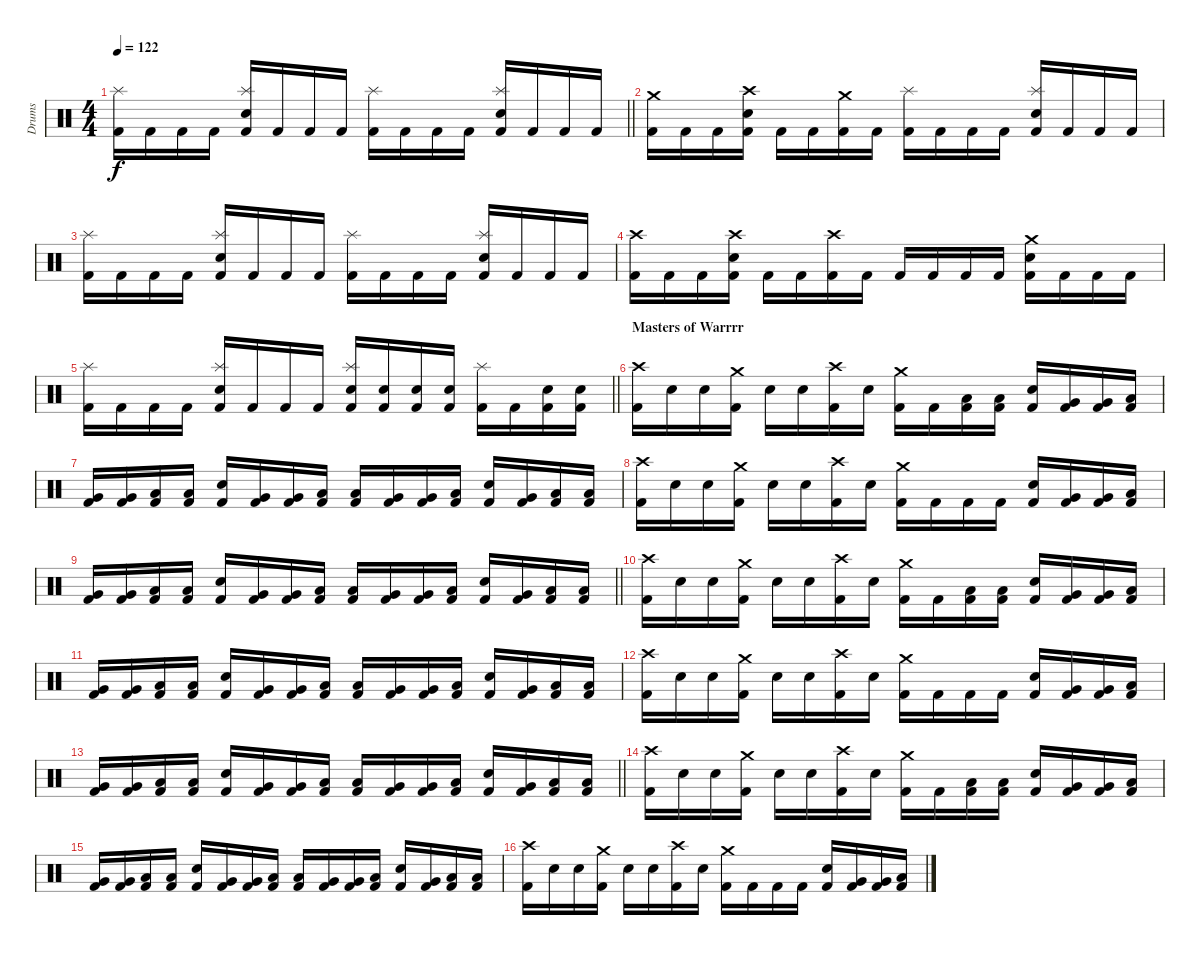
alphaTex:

\track ("Drums" "Drums") {instrument percussion}
\staff {score}
\articulation defaults
\ts (4 4)
\tempo 122
\clef neutral
\barLineRight lightlight
\ks c
("Kick (hit) 2" "Splash (hit)").16{dy f} "Kick (hit) 2".16 "Kick (hit) 2".16 "Kick (hit) 2".16 ("Kick (hit) 2" "Snare (hit) 2" "Splash (hit)").16 "Kick (hit) 2".16 "Kick (hit) 2".16 "Kick (hit) 2".16 ("Kick (hit) 2" "Splash (hit)").16 "Kick (hit) 2".16 "Kick (hit) 2".16 "Kick (hit) 2".16 ("Kick (hit) 2" "Snare (hit) 2" "Splash (hit)").16 "Kick (hit) 2".16 "Kick (hit) 2".16 "Kick (hit) 2".16 |
\section ("" "")
("Kick (hit) 2" "Crash medium (hit)").16 "Kick (hit) 2".16 "Kick (hit) 2".16 ("Kick (hit) 2" "Snare (hit) 2" "Crash high (hit)").16 "Kick (hit) 2".16 "Kick (hit) 2".16 ("Kick (hit) 2" "Crash medium (hit)").16 "Kick (hit) 2".16 ("Kick (hit) 2" "Splash (hit)").16 "Kick (hit) 2".16 "Kick (hit) 2".16 "Kick (hit) 2".16 ("Kick (hit) 2" "Snare (hit) 2" "Splash (hit)").16 "Kick (hit) 2".16 "Kick (hit) 2".16 "Kick (hit) 2".16 |
("Kick (hit) 2" "Splash (hit)").16 "Kick (hit) 2".16 "Kick (hit) 2".16 "Kick (hit) 2".16 ("Kick (hit) 2" "Snare (hit) 2" "Splash (hit)").16 "Kick (hit) 2".16 "Kick (hit) 2".16 "Kick (hit) 2".16 ("Kick (hit) 2" "Splash (hit)").16 "Kick (hit) 2".16 "Kick (hit) 2".16 "Kick (hit) 2".16 ("Kick (hit) 2" "Snare (hit) 2" "Splash (hit)").16 "Kick (hit) 2".16 "Kick (hit) 2".16 "Kick (hit) 2".16 |
("Kick (hit) 2" "Crash high (hit)").16 "Kick (hit) 2".16 "Kick (hit) 2".16 ("Kick (hit) 2" "Snare (hit) 2" "Crash high (hit)").16 "Kick (hit) 2".16 "Kick (hit) 2".16 ("Kick (hit) 2" "Crash high (hit)").16 "Kick (hit) 2".16 "Kick (hit) 2".16 "Kick (hit) 2".16 "Kick (hit) 2".16 "Kick (hit) 2".16 ("Kick (hit) 2" "Snare (hit) 2" "Crash medium (hit)").16 "Kick (hit) 2".16 "Kick (hit) 2".16 "Kick (hit) 2".16 |
\barLineRight lightlight
("Kick (hit) 2" "Splash (hit)").16 "Kick (hit) 2".16 "Kick (hit) 2".16 "Kick (hit) 2".16 ("Kick (hit) 2" "Snare (hit) 2" "Splash (hit)").16 "Kick (hit) 2".16 "Kick (hit) 2".16 "Kick (hit) 2".16 ("Kick (hit) 2" "Snare (hit) 2" "Splash (hit)").16 ("Kick (hit) 2" "Snare (hit) 2").16 ("Kick (hit) 2" "Snare (hit) 2").16 ("Kick (hit) 2" "Snare (hit) 2").16 ("Kick (hit) 2" "Splash (hit)").16 "Kick (hit) 2".16 ("Kick (hit) 2" "Snare (hit) 2").16 ("Kick (hit) 2" "Snare (hit) 2").16 |
\section ("" "Masters of Warrrr")
("Kick (hit) 2" "Crash high (hit)").16 "Snare (hit) 2".16 "Snare (hit) 2".16 ("Kick (hit) 2" "Crash medium (hit)").16 "Snare (hit) 2".16 "Snare (hit) 2".16 ("Kick (hit) 2" "Crash high (hit)").16 "Snare (hit) 2".16 ("Kick (hit) 2" "Crash medium (hit)").16 "Kick (hit) 2".16 ("Kick (hit) 2" "Low Floor Tom (hit)").16 ("Kick (hit) 2" "Low Floor Tom (hit)").16 ("Kick (hit) 2" "Snare (hit) 2").16 ("Kick (hit) 2" "Very Low Tom (hit)").16 ("Kick (hit) 2" "Very Low Tom (hit)").16 ("Kick (hit) 2" "Low Floor Tom (hit)").16 |
("Kick (hit) 2" "Very Low Tom (hit)").16 ("Kick (hit) 2" "Very Low Tom (hit)").16 ("Kick (hit) 2" "Low Floor Tom (hit)").16 ("Kick (hit) 2" "Low Floor Tom (hit)").16 ("Kick (hit) 2" "Snare (hit) 2").16 ("Kick (hit) 2" "Very Low Tom (hit)").16 ("Kick (hit) 2" "Very Low Tom (hit)").16 ("Kick (hit) 2" "Low Floor Tom (hit)").16 ("Kick (hit) 2" "Low Floor Tom (hit)").16 ("Kick (hit) 2" "Very Low Tom (hit)").16 ("Kick (hit) 2" "Very Low Tom (hit)").16 ("Kick (hit) 2" "Low Floor Tom (hit)").16 ("Kick (hit) 2" "Snare (hit) 2").16 ("Kick (hit) 2" "Very Low Tom (hit)").16 ("Kick (hit) 2" "Low Floor Tom (hit)").16 ("Kick (hit) 2" "Low Floor Tom (hit)").16 |
("Kick (hit) 2" "Crash high (hit)").16 "Snare (hit) 2".16 "Snare (hit) 2".16 ("Kick (hit) 2" "Crash medium (hit)").16 "Snare (hit) 2".16 "Snare (hit) 2".16 ("Kick (hit) 2" "Crash high (hit)").16 "Snare (hit) 2".16 ("Kick (hit) 2" "Crash medium (hit)").16 "Kick (hit) 2".16 "Kick (hit) 2".16 "Kick (hit) 2".16 ("Kick (hit) 2" "Snare (hit) 2").16 ("Kick (hit) 2" "Very Low Tom (hit)").16 ("Kick (hit) 2" "Very Low Tom (hit)").16 ("Kick (hit) 2" "Low Floor Tom (hit)").16 |
\barLineRight lightlight
("Kick (hit) 2" "Very Low Tom (hit)").16 ("Kick (hit) 2" "Very Low Tom (hit)").16 ("Kick (hit) 2" "Low Floor Tom (hit)").16 ("Kick (hit) 2" "Low Floor Tom (hit)").16 ("Kick (hit) 2" "Snare (hit) 2").16 ("Kick (hit) 2" "Very Low Tom (hit)").16 ("Kick (hit) 2" "Very Low Tom (hit)").16 ("Kick (hit) 2" "Low Floor Tom (hit)").16 ("Kick (hit) 2" "Low Floor Tom (hit)").16 ("Kick (hit) 2" "Very Low Tom (hit)").16 ("Kick (hit) 2" "Very Low Tom (hit)").16 ("Kick (hit) 2" "Low Floor Tom (hit)").16 ("Kick (hit) 2" "Snare (hit) 2").16 ("Kick (hit) 2" "Very Low Tom (hit)").16 ("Kick (hit) 2" "Low Floor Tom (hit)").16 ("Kick (hit) 2" "Low Floor Tom (hit)").16 |
\section ("" "")
("Kick (hit) 2" "Crash high (hit)").16 "Snare (hit) 2".16 "Snare (hit) 2".16 ("Kick (hit) 2" "Crash medium (hit)").16 "Snare (hit) 2".16 "Snare (hit) 2".16 ("Kick (hit) 2" "Crash high (hit)").16 "Snare (hit) 2".16 ("Kick (hit) 2" "Crash medium (hit)").16 "Kick (hit) 2".16 ("Kick (hit) 2" "Low Floor Tom (hit)").16 ("Kick (hit) 2" "Low Floor Tom (hit)").16 ("Kick (hit) 2" "Snare (hit) 2").16 ("Kick (hit) 2" "Very Low Tom (hit)").16 ("Kick (hit) 2" "Very Low Tom (hit)").16 ("Kick (hit) 2" "Low Floor Tom (hit)").16 |
("Kick (hit) 2" "Very Low Tom (hit)").16 ("Kick (hit) 2" "Very Low Tom (hit)").16 ("Kick (hit) 2" "Low Floor Tom (hit)").16 ("Kick (hit) 2" "Low Floor Tom (hit)").16 ("Kick (hit) 2" "Snare (hit) 2").16 ("Kick (hit) 2" "Very Low Tom (hit)").16 ("Kick (hit) 2" "Very Low Tom (hit)").16 ("Kick (hit) 2" "Low Floor Tom (hit)").16 ("Kick (hit) 2" "Low Floor Tom (hit)").16 ("Kick (hit) 2" "Very Low Tom (hit)").16 ("Kick (hit) 2" "Very Low Tom (hit)").16 ("Kick (hit) 2" "Low Floor Tom (hit)").16 ("Kick (hit) 2" "Snare (hit) 2").16 ("Kick (hit) 2" "Very Low Tom (hit)").16 ("Kick (hit) 2" "Low Floor Tom (hit)").16 ("Kick (hit) 2" "Low Floor Tom (hit)").16 |
("Kick (hit) 2" "Crash high (hit)").16 "Snare (hit) 2".16 "Snare (hit) 2".16 ("Kick (hit) 2" "Crash medium (hit)").16 "Snare (hit) 2".16 "Snare (hit) 2".16 ("Kick (hit) 2" "Crash high (hit)").16 "Snare (hit) 2".16 ("Kick (hit) 2" "Crash medium (hit)").16 "Kick (hit) 2".16 "Kick (hit) 2".16 "Kick (hit) 2".16 ("Kick (hit) 2" "Snare (hit) 2").16 ("Kick (hit) 2" "Very Low Tom (hit)").16 ("Kick (hit) 2" "Very Low Tom (hit)").16 ("Kick (hit) 2" "Low Floor Tom (hit)").16 |
\barLineRight lightlight
("Kick (hit) 2" "Very Low Tom (hit)").16 ("Kick (hit) 2" "Very Low Tom (hit)").16 ("Kick (hit) 2" "Low Floor Tom (hit)").16 ("Kick (hit) 2" "Low Floor Tom (hit)").16 ("Kick (hit) 2" "Snare (hit) 2").16 ("Kick (hit) 2" "Very Low Tom (hit)").16 ("Kick (hit) 2" "Very Low Tom (hit)").16 ("Kick (hit) 2" "Low Floor Tom (hit)").16 ("Kick (hit) 2" "Low Floor Tom (hit)").16 ("Kick (hit) 2" "Very Low Tom (hit)").16 ("Kick (hit) 2" "Very Low Tom (hit)").16 ("Kick (hit) 2" "Low Floor Tom (hit)").16 ("Kick (hit) 2" "Snare (hit) 2").16 ("Kick (hit) 2" "Very Low Tom (hit)").16 ("Kick (hit) 2" "Low Floor Tom (hit)").16 ("Kick (hit) 2" "Low Floor Tom (hit)").16 |
\section ("" "")
("Kick (hit) 2" "Crash high (hit)").16 "Snare (hit) 2".16 "Snare (hit) 2".16 ("Kick (hit) 2" "Crash medium (hit)").16 "Snare (hit) 2".16 "Snare (hit) 2".16 ("Kick (hit) 2" "Crash high (hit)").16 "Snare (hit) 2".16 ("Kick (hit) 2" "Crash medium (hit)").16 "Kick (hit) 2".16 ("Kick (hit) 2" "Low Floor Tom (hit)").16 ("Kick (hit) 2" "Low Floor Tom (hit)").16 ("Kick (hit) 2" "Snare (hit) 2").16 ("Kick (hit) 2" "Very Low Tom (hit)").16 ("Kick (hit) 2" "Very Low Tom (hit)").16 ("Kick (hit) 2" "Low Floor Tom (hit)").16 |
("Kick (hit) 2" "Very Low Tom (hit)").16 ("Kick (hit) 2" "Very Low Tom (hit)").16 ("Kick (hit) 2" "Low Floor Tom (hit)").16 ("Kick (hit) 2" "Low Floor Tom (hit)").16 ("Kick (hit) 2" "Snare (hit) 2").16 ("Kick (hit) 2" "Very Low Tom (hit)").16 ("Kick (hit) 2" "Very Low Tom (hit)").16 ("Kick (hit) 2" "Low Floor Tom (hit)").16 ("Kick (hit) 2" "Low Floor Tom (hit)").16 ("Kick (hit) 2" "Very Low Tom (hit)").16 ("Kick (hit) 2" "Very Low Tom (hit)").16 ("Kick (hit) 2" "Low Floor Tom (hit)").16 ("Kick (hit) 2" "Snare (hit) 2").16 ("Kick (hit) 2" "Very Low Tom (hit)").16 ("Kick (hit) 2" "Low Floor Tom (hit)").16 ("Kick (hit) 2" "Low Floor Tom (hit)").16 |
("Kick (hit) 2" "Crash high (hit)").16 "Snare (hit) 2".16 "Snare (hit) 2".16 ("Kick (hit) 2" "Crash medium (hit)").16 "Snare (hit) 2".16 "Snare (hit) 2".16 ("Kick (hit) 2" "Crash high (hit)").16 "Snare (hit) 2".16 ("Kick (hit) 2" "Crash medium (hit)").16 "Kick (hit) 2".16 "Kick (hit) 2".16 "Kick (hit) 2".16 ("Kick (hit) 2" "Snare (hit) 2").16 ("Kick (hit) 2" "Very Low Tom (hit)").16 ("Kick (hit) 2" "Very Low Tom (hit)").16 ("Kick (hit) 2" "Low Floor Tom (hit)").16
